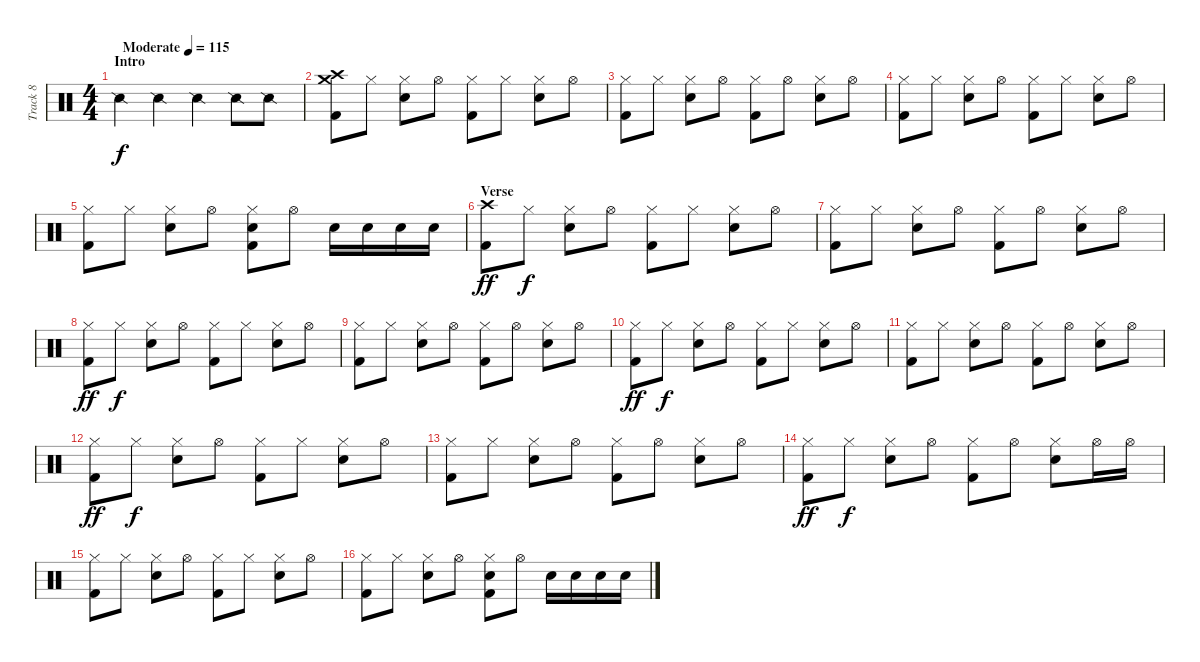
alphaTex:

\track ("Track 8" "Track 8") {instrument percussion}
\staff {score}
\articulation defaults
\ts (4 4)
\section ("" "Intro")
\tempo (115 "Moderate")
\clef neutral
\ks c "Snare (side stick) 2".4{dy f} "Snare (side stick) 2".4 "Snare (side stick) 2".4 "Snare (side stick) 2".8 "Snare (side stick) 2".8
|
("Crash medium (hit)" "Kick (hit) 2" "Crash high (hit)").8 "Hi-Hat (closed)".8 ("Hi-Hat (closed)" "Electric Snare (hit)").8 "Hi-Hat (open)".8 ("Hi-Hat (closed)" "Kick (hit) 2").8 "Hi-Hat (closed)".8 ("Hi-Hat (closed)" "Electric Snare (hit)").8 "Hi-Hat (open)".8 |
("Hi-Hat (closed)" "Kick (hit) 2").8 "Hi-Hat (closed)".8 ("Hi-Hat (closed)" "Electric Snare (hit)").8 "Hi-Hat (open)".8 ("Hi-Hat (closed)" "Kick (hit) 2").8 "Hi-Hat (open)".8 ("Hi-Hat (closed)" "Electric Snare (hit)").8 "Hi-Hat (open)".8 |
("Hi-Hat (closed)" "Kick (hit) 2").8 "Hi-Hat (closed)".8 ("Hi-Hat (closed)" "Electric Snare (hit)").8 "Hi-Hat (open)".8 ("Hi-Hat (closed)" "Kick (hit) 2").8 "Hi-Hat (closed)".8 ("Hi-Hat (closed)" "Electric Snare (hit)").8 "Hi-Hat (open)".8 |
("Hi-Hat (closed)" "Kick (hit) 2").8 "Hi-Hat (closed)".8 ("Hi-Hat (closed)" "Electric Snare (hit)").8 "Hi-Hat (open)".8 ("Hi-Hat (closed)" "Kick (hit) 2" "Electric Snare (hit)").8 "Hi-Hat (open)".8 "Electric Snare (hit)".16 "Electric Snare (hit)".16 "Electric Snare (hit)".16 "Electric Snare (hit)".16 |
\section ("" "Verse")
("Crash high (hit)" "Kick (hit) 2").8{dy ff} "Hi-Hat (closed)".8{dy f} ("Hi-Hat (closed)" "Electric Snare (hit)").8 "Hi-Hat (open)".8 ("Hi-Hat (closed)" "Kick (hit) 2").8 "Hi-Hat (closed)".8 ("Hi-Hat (closed)" "Electric Snare (hit)").8 "Hi-Hat (open)".8 |
("Hi-Hat (closed)" "Kick (hit) 2").8 "Hi-Hat (closed)".8 ("Hi-Hat (closed)" "Electric Snare (hit)").8 "Hi-Hat (open)".8 ("Hi-Hat (closed)" "Kick (hit) 2").8 "Hi-Hat (open)".8 ("Hi-Hat (closed)" "Electric Snare (hit)").8 "Hi-Hat (open)".8 |
("Hi-Hat (closed)" "Kick (hit) 2").8{dy ff} "Hi-Hat (closed)".8{dy f} ("Hi-Hat (closed)" "Electric Snare (hit)").8 "Hi-Hat (open)".8 ("Hi-Hat (closed)" "Kick (hit) 2").8 "Hi-Hat (closed)".8 ("Hi-Hat (closed)" "Electric Snare (hit)").8 "Hi-Hat (open)".8 |
("Hi-Hat (closed)" "Kick (hit) 2").8 "Hi-Hat (closed)".8 ("Hi-Hat (closed)" "Electric Snare (hit)").8 "Hi-Hat (open)".8 ("Hi-Hat (closed)" "Kick (hit) 2").8 "Hi-Hat (open)".8 ("Hi-Hat (closed)" "Electric Snare (hit)").8 "Hi-Hat (open)".8 |
("Hi-Hat (closed)" "Kick (hit) 2").8{dy ff} "Hi-Hat (closed)".8{dy f} ("Hi-Hat (closed)" "Electric Snare (hit)").8 "Hi-Hat (open)".8 ("Hi-Hat (closed)" "Kick (hit) 2").8 "Hi-Hat (closed)".8 ("Hi-Hat (closed)" "Electric Snare (hit)").8 "Hi-Hat (open)".8 |
("Hi-Hat (closed)" "Kick (hit) 2").8 "Hi-Hat (closed)".8 ("Hi-Hat (closed)" "Electric Snare (hit)").8 "Hi-Hat (open)".8 ("Hi-Hat (closed)" "Kick (hit) 2").8 "Hi-Hat (open)".8 ("Hi-Hat (closed)" "Electric Snare (hit)").8 "Hi-Hat (open)".8 |
("Hi-Hat (closed)" "Kick (hit) 2").8{dy ff} "Hi-Hat (closed)".8{dy f} ("Hi-Hat (closed)" "Electric Snare (hit)").8 "Hi-Hat (open)".8 ("Hi-Hat (closed)" "Kick (hit) 2").8 "Hi-Hat (closed)".8 ("Hi-Hat (closed)" "Electric Snare (hit)").8 "Hi-Hat (open)".8 |
("Hi-Hat (closed)" "Kick (hit) 2").8 "Hi-Hat (closed)".8 ("Hi-Hat (closed)" "Electric Snare (hit)").8 "Hi-Hat (open)".8 ("Hi-Hat (closed)" "Kick (hit) 2").8 "Hi-Hat (open)".8 ("Hi-Hat (closed)" "Electric Snare (hit)").8 "Hi-Hat (open)".8 |
("Hi-Hat (closed)" "Kick (hit) 2").8{dy ff} "Hi-Hat (closed)".8{dy f} ("Hi-Hat (closed)" "Electric Snare (hit)").8 "Hi-Hat (open)".8 ("Hi-Hat (closed)" "Kick (hit) 2").8 "Hi-Hat (open)".8 ("Hi-Hat (closed)" "Electric Snare (hit)").8 "Hi-Hat (open)".16 "Hi-Hat (open)".16 |
("Hi-Hat (closed)" "Kick (hit) 2").8 "Hi-Hat (closed)".8 ("Hi-Hat (closed)" "Electric Snare (hit)").8 "Hi-Hat (open)".8 ("Hi-Hat (closed)" "Kick (hit) 2").8 "Hi-Hat (closed)".8 ("Hi-Hat (closed)" "Electric Snare (hit)").8 "Hi-Hat (open)".8 |
("Hi-Hat (closed)" "Kick (hit) 2").8 "Hi-Hat (closed)".8 ("Hi-Hat (closed)" "Electric Snare (hit)").8 "Hi-Hat (open)".8 ("Hi-Hat (closed)" "Kick (hit) 2" "Electric Snare (hit)").8 "Hi-Hat (open)".8 "Electric Snare (hit)".16 "Electric Snare (hit)".16 "Electric Snare (hit)".16 "Electric Snare (hit)".16
